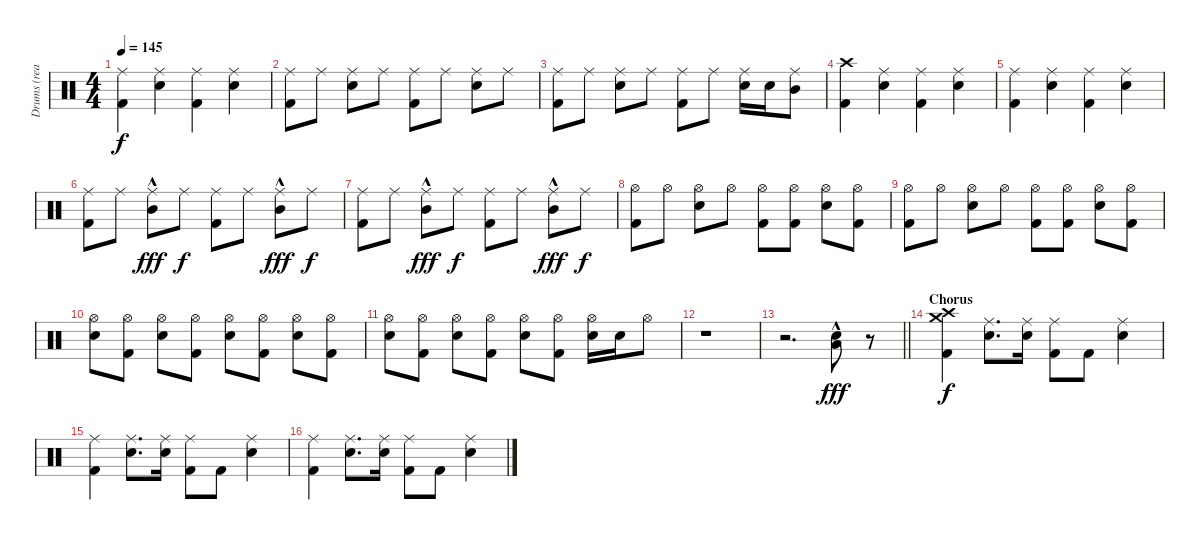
\track ("Drums (real)" "Drums (rea") {instrument percussion}
\staff {score}
\articulation defaults
\ts (4 4)
\tempo 145
\clef neutral
\ks c
("Ride (middle)" "Kick (hit) 2").4{dy f} ("Ride (middle)" "Snare (hit) 2").4 ("Ride (middle)" "Kick (hit) 2").4 ("Ride (middle)" "Snare (hit) 2").4 |
("Ride (middle)" "Kick (hit) 2").8 "Ride (middle)".8 ("Ride (middle)" "Snare (hit) 2").8 "Ride (middle)".8 ("Ride (middle)" "Kick (hit) 2").8 "Ride (middle)".8 ("Ride (middle)" "Snare (hit) 2").8 "Ride (middle)".8 |
("Ride (middle)" "Kick (hit) 2").8 "Ride (middle)".8 ("Ride (middle)" "Snare (hit) 2").8 "Ride (middle)".8 ("Ride (middle)" "Kick (hit) 2").8 "Ride (middle)".8 ("Ride (middle)" "Snare (hit) 2").16 "Snare (hit) 2".16 ("Ride (middle)" "Mid Tom (hit)").8 |
("Crash high (hit)" "Kick (hit) 2").4 ("Ride (middle)" "Snare (hit) 2").4 ("Ride (middle)" "Kick (hit) 2").4 ("Ride (middle)" "Snare (hit) 2").4 |
("Ride (middle)" "Kick (hit) 2").4 ("Ride (middle)" "Snare (hit) 2").4 ("Ride (middle)" "Kick (hit) 2").4 ("Ride (middle)" "Snare (hit) 2").4 |
("Ride (middle)" "Kick (hit) 2").8 "Ride (middle)".8 ("Ride (middle)" "Mid Tom (hit)"{hac}).8{dy fff} "Ride (middle)".8{dy f} ("Ride (middle)" "Kick (hit) 2").8 "Ride (middle)".8 ("Ride (middle)" "Mid Tom (hit)"{hac}).8{dy fff} "Ride (middle)".8{dy f} |
("Ride (middle)" "Kick (hit) 2").8 "Ride (middle)".8 ("Ride (middle)" "Mid Tom (hit)"{hac}).8{dy fff} "Ride (middle)".8{dy f} ("Ride (middle)" "Kick (hit) 2").8 "Ride (middle)".8 ("Ride (middle)" "Mid Tom (hit)"{hac}).8{dy fff} "Ride (middle)".8{dy f} |
("Hi-Hat (open)" "Kick (hit) 2").8 "Hi-Hat (open)".8 ("Hi-Hat (open)" "Snare (hit) 2").8 "Hi-Hat (open)".8 ("Hi-Hat (open)" "Kick (hit) 2").8 ("Hi-Hat (open)" "Kick (hit) 2").8 ("Hi-Hat (open)" "Snare (hit) 2").8 ("Hi-Hat (open)" "Kick (hit) 2").8 |
("Hi-Hat (open)" "Kick (hit) 2").8 "Hi-Hat (open)".8 ("Hi-Hat (open)" "Snare (hit) 2").8 "Hi-Hat (open)".8 ("Hi-Hat (open)" "Kick (hit) 2").8 ("Hi-Hat (open)" "Kick (hit) 2").8 ("Hi-Hat (open)" "Snare (hit) 2").8 ("Hi-Hat (open)" "Kick (hit) 2").8 |
("Hi-Hat (open)" "Snare (hit) 2").8 ("Hi-Hat (open)" "Kick (hit) 2").8 ("Hi-Hat (open)" "Snare (hit) 2").8 ("Hi-Hat (open)" "Kick (hit) 2").8 ("Hi-Hat (open)" "Snare (hit) 2").8 ("Hi-Hat (open)" "Kick (hit) 2").8 ("Hi-Hat (open)" "Snare (hit) 2").8 ("Hi-Hat (open)" "Kick (hit) 2").8 |
("Hi-Hat (open)" "Snare (hit) 2").8 ("Hi-Hat (open)" "Kick (hit) 2").8 ("Hi-Hat (open)" "Snare (hit) 2").8 ("Hi-Hat (open)" "Kick (hit) 2").8 ("Hi-Hat (open)" "Snare (hit) 2").8 ("Hi-Hat (open)" "Kick (hit) 2").8 ("Hi-Hat (open)" "Snare (hit) 2").16 "Snare (hit) 2".16 "Hi-Hat (open)".8 |
r.1 |
\barLineRight lightlight
r.2{d} ("Low Tom (hit)"{hac} "Snare (hit) 2").8{dy fff} r.8 |
\section ("" "Chorus")
("Crash high (hit)" "Crash medium (hit)" "Kick (hit) 2").4{dy f} ("Ride (middle)" "Snare (hit) 2").8{d} ("Ride (middle)" "Snare (hit) 2").16 ("Ride (middle)" "Kick (hit) 2").8 "Kick (hit) 2".8 ("Ride (middle)" "Snare (hit) 2").4 |
("Ride (middle)" "Kick (hit) 2").4 ("Ride (middle)" "Snare (hit) 2").8{d} ("Ride (middle)" "Snare (hit) 2").16 ("Ride (middle)" "Kick (hit) 2").8 "Kick (hit) 2".8 ("Ride (middle)" "Snare (hit) 2").4 |
("Ride (middle)" "Kick (hit) 2").4 ("Ride (middle)" "Snare (hit) 2").8{d} ("Ride (middle)" "Snare (hit) 2").16 ("Ride (middle)" "Kick (hit) 2").8 "Kick (hit) 2".8 ("Ride (middle)" "Snare (hit) 2").4
